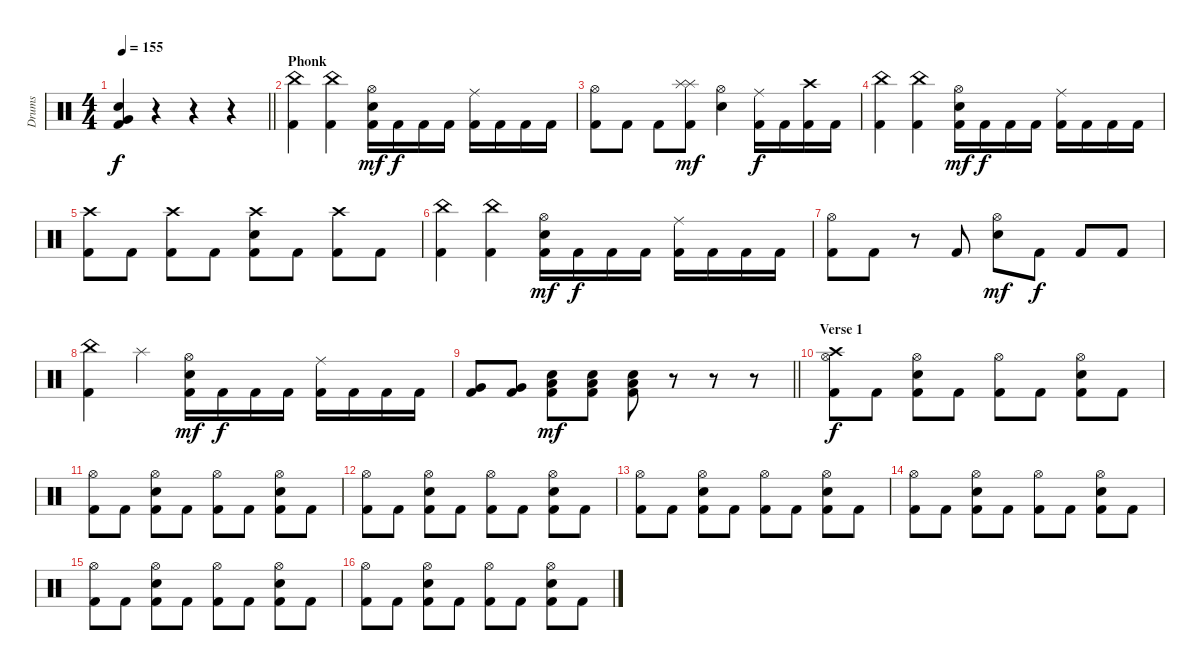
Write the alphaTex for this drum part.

\track ("Drums" "Drums") {instrument percussion}
\staff {score}
\articulation defaults
\ts (4 4)
\tempo 155
\clef neutral
\barLineRight lightlight
\ks c
("Snare (hit) 2" "Very Low Tom (hit)" "Kick (hit) 2").4{dy f} r.4 r.4 r.4 |
\section ("" "Phonk")
("China (hit)" "Kick (hit) 2").4 ("China (hit)" "Kick (hit) 2").4 ("Hi-Hat (open)" "Snare (hit) 2" "Kick (hit) 2").16{dy mf} "Kick (hit) 2".16{dy f} "Kick (hit) 2".16 "Kick (hit) 2".16 ("Ride (middle)" "Kick (hit) 2").16 "Kick (hit) 2".16 "Kick (hit) 2".16 "Kick (hit) 2".16 |
("Hi-Hat (open)" "Kick (hit) 2").8 "Kick (hit) 2".8 "Kick (hit) 2".8 ("Splash (hit)" "Splash (hit)" "Kick (hit) 2").8{dy mf} ("Hi-Hat (open)" "Snare (hit) 2").4 ("Ride (middle)" "Kick (hit) 2").16{dy f} "Kick (hit) 2".16 ("Crash high (hit)" "Kick (hit) 2").16 "Kick (hit) 2".16 |
("China (hit)" "Kick (hit) 2").4 ("China (hit)" "Kick (hit) 2").4 ("Hi-Hat (open)" "Snare (hit) 2" "Kick (hit) 2").16{dy mf} "Kick (hit) 2".16{dy f} "Kick (hit) 2".16 "Kick (hit) 2".16 ("Ride (middle)" "Kick (hit) 2").16 "Kick (hit) 2".16 "Kick (hit) 2".16 "Kick (hit) 2".16 |
("Crash high (hit)" "Kick (hit) 2").8 "Kick (hit) 2".8 ("Crash high (hit)" "Kick (hit) 2").8 "Kick (hit) 2".8 ("Crash high (hit)" "Snare (hit) 2" "Kick (hit) 2").8 "Kick (hit) 2".8 ("Crash high (hit)" "Kick (hit) 2").8 "Kick (hit) 2".8 |
("China (hit)" "Kick (hit) 2").4 ("China (hit)" "Kick (hit) 2").4 ("Hi-Hat (open)" "Snare (hit) 2" "Kick (hit) 2").16{dy mf} "Kick (hit) 2".16{dy f} "Kick (hit) 2".16 "Kick (hit) 2".16 ("Ride (middle)" "Kick (hit) 2").16 "Kick (hit) 2".16 "Kick (hit) 2".16 "Kick (hit) 2".16 |
("Hi-Hat (open)" "Kick (hit) 2").8 "Kick (hit) 2".8 r.8 "Kick (hit) 2".8 ("Hi-Hat (open)" "Snare (hit) 2").8{dy mf} "Kick (hit) 2".8{dy f} "Kick (hit) 2".8 "Kick (hit) 2".8 |
("China (hit)" "Kick (hit) 2").4 "Splash (hit)".4 ("Hi-Hat (open)" "Snare (hit) 2" "Kick (hit) 2").16{dy mf} "Kick (hit) 2".16{dy f} "Kick (hit) 2".16 "Kick (hit) 2".16 ("Ride (middle)" "Kick (hit) 2").16 "Kick (hit) 2".16 "Kick (hit) 2".16 "Kick (hit) 2".16 |
\barLineRight lightlight
("Very Low Tom (hit)" "Kick (hit) 2").8 ("Very Low Tom (hit)" "Kick (hit) 2").8 ("Low Floor Tom (hit)" "Snare (hit) 2" "Kick (hit) 2").8{dy mf} ("Low Floor Tom (hit)" "Snare (hit) 2" "Kick (hit) 2").8 ("Low Floor Tom (hit)" "Snare (hit) 2" "Kick (hit) 2").8 r.8 r.8 r.8 |
\section ("" "Verse 1")
("Crash high (hit)" "Hi-Hat (open)" "Kick (hit) 2").8{dy f} "Kick (hit) 2".8 ("Hi-Hat (open)" "Snare (hit) 2" "Kick (hit) 2").8 "Kick (hit) 2".8 ("Hi-Hat (open)" "Kick (hit) 2").8 "Kick (hit) 2".8 ("Hi-Hat (open)" "Snare (hit) 2" "Kick (hit) 2").8 "Kick (hit) 2".8 |
("Hi-Hat (open)" "Kick (hit) 2").8 "Kick (hit) 2".8 ("Hi-Hat (open)" "Snare (hit) 2" "Kick (hit) 2").8 "Kick (hit) 2".8 ("Hi-Hat (open)" "Kick (hit) 2").8 "Kick (hit) 2".8 ("Hi-Hat (open)" "Snare (hit) 2" "Kick (hit) 2").8 "Kick (hit) 2".8 |
("Hi-Hat (open)" "Kick (hit) 2").8 "Kick (hit) 2".8 ("Hi-Hat (open)" "Snare (hit) 2" "Kick (hit) 2").8 "Kick (hit) 2".8 ("Hi-Hat (open)" "Kick (hit) 2").8 "Kick (hit) 2".8 ("Hi-Hat (open)" "Snare (hit) 2" "Kick (hit) 2").8 "Kick (hit) 2".8 |
("Hi-Hat (open)" "Kick (hit) 2").8 "Kick (hit) 2".8 ("Hi-Hat (open)" "Snare (hit) 2" "Kick (hit) 2").8 "Kick (hit) 2".8 ("Hi-Hat (open)" "Kick (hit) 2").8 "Kick (hit) 2".8 ("Hi-Hat (open)" "Snare (hit) 2" "Kick (hit) 2").8 "Kick (hit) 2".8 |
("Hi-Hat (open)" "Kick (hit) 2").8 "Kick (hit) 2".8 ("Hi-Hat (open)" "Snare (hit) 2" "Kick (hit) 2").8 "Kick (hit) 2".8 ("Hi-Hat (open)" "Kick (hit) 2").8 "Kick (hit) 2".8 ("Hi-Hat (open)" "Snare (hit) 2" "Kick (hit) 2").8 "Kick (hit) 2".8 |
("Hi-Hat (open)" "Kick (hit) 2").8 "Kick (hit) 2".8 ("Hi-Hat (open)" "Snare (hit) 2" "Kick (hit) 2").8 "Kick (hit) 2".8 ("Hi-Hat (open)" "Kick (hit) 2").8 "Kick (hit) 2".8 ("Hi-Hat (open)" "Snare (hit) 2" "Kick (hit) 2").8 "Kick (hit) 2".8 |
("Hi-Hat (open)" "Kick (hit) 2").8 "Kick (hit) 2".8 ("Hi-Hat (open)" "Snare (hit) 2" "Kick (hit) 2").8 "Kick (hit) 2".8 ("Hi-Hat (open)" "Kick (hit) 2").8 "Kick (hit) 2".8 ("Hi-Hat (open)" "Snare (hit) 2" "Kick (hit) 2").8 "Kick (hit) 2".8
